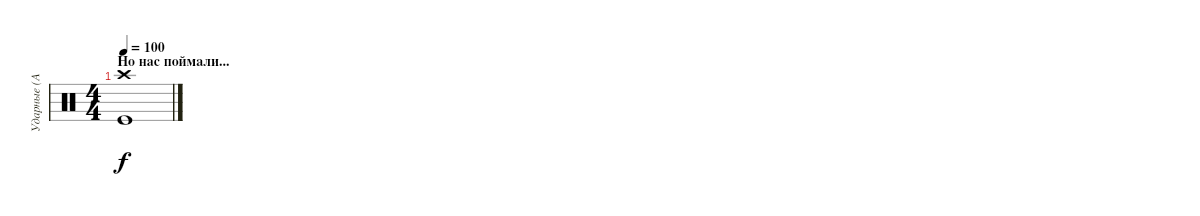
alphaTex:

\track ("Ударные (Александр Андрюшкин)" "Ударные (А") {instrument percussion}
\staff {score}
\articulation defaults
\ts (4 4)
\section ("" "Но нас поймали...")
\tempo 100
\clef neutral
\ks c
("Crash high (hit)" "Kick (hit)").1{dy f}
